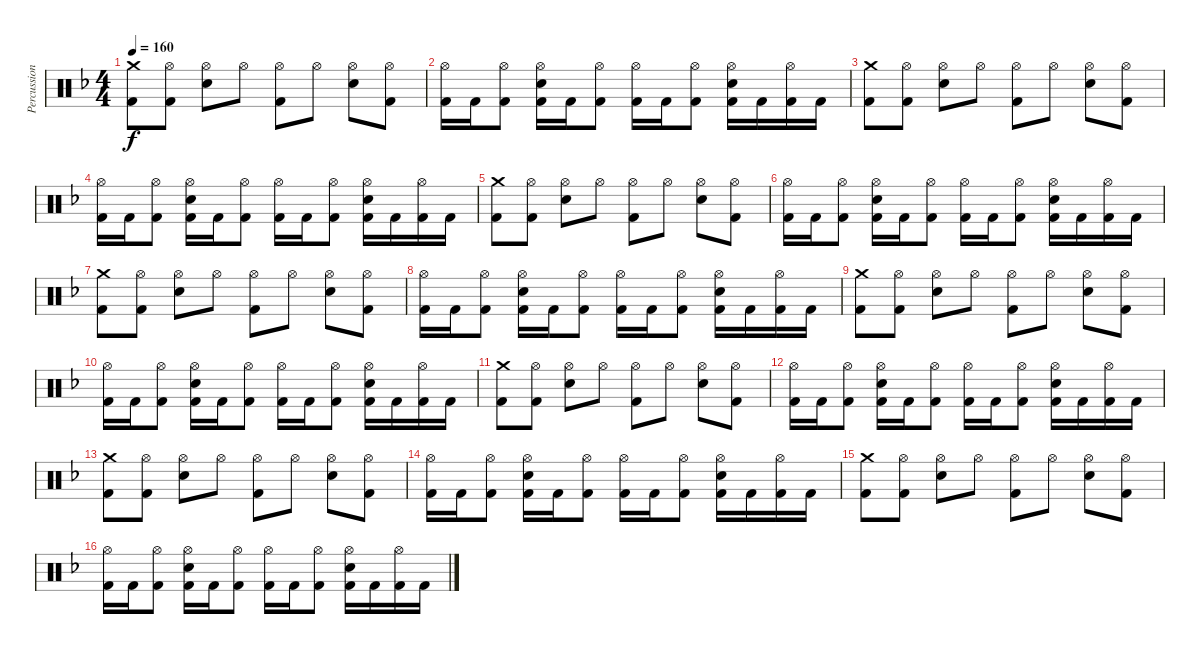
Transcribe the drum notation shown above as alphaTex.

\track ("Percussions" "Percussion") {instrument percussion}
\staff {score}
\articulation defaults
\ts (4 4)
\tempo 160
\clef neutral
\ks f
("Crash medium (hit)" "Kick (hit) 2").8{dy f} ("Hi-Hat (open)" "Kick (hit) 2").8 ("Hi-Hat (open)" "Snare (hit) 2").8 "Hi-Hat (open)".8 ("Hi-Hat (open)" "Kick (hit) 2").8 "Hi-Hat (open)".8 ("Hi-Hat (open)" "Snare (hit) 2").8 ("Hi-Hat (open)" "Kick (hit) 2").8 |
("Hi-Hat (open)" "Kick (hit) 2").16 "Kick (hit) 2".16 ("Hi-Hat (open)" "Kick (hit) 2").8 ("Snare (hit) 2" "Hi-Hat (open)" "Kick (hit) 2").16 "Kick (hit) 2".16 ("Hi-Hat (open)" "Kick (hit) 2").8 ("Hi-Hat (open)" "Kick (hit) 2").16 "Kick (hit) 2".16 ("Hi-Hat (open)" "Kick (hit) 2").8 ("Snare (hit) 2" "Hi-Hat (open)" "Kick (hit) 2").16 "Kick (hit) 2".16 ("Hi-Hat (open)" "Kick (hit) 2").16 "Kick (hit) 2".16 |
("Crash medium (hit)" "Kick (hit) 2").8 ("Hi-Hat (open)" "Kick (hit) 2").8 ("Hi-Hat (open)" "Snare (hit) 2").8 "Hi-Hat (open)".8 ("Hi-Hat (open)" "Kick (hit) 2").8 "Hi-Hat (open)".8 ("Hi-Hat (open)" "Snare (hit) 2").8 ("Hi-Hat (open)" "Kick (hit) 2").8 |
("Hi-Hat (open)" "Kick (hit) 2").16 "Kick (hit) 2".16 ("Hi-Hat (open)" "Kick (hit) 2").8 ("Snare (hit) 2" "Hi-Hat (open)" "Kick (hit) 2").16 "Kick (hit) 2".16 ("Hi-Hat (open)" "Kick (hit) 2").8 ("Hi-Hat (open)" "Kick (hit) 2").16 "Kick (hit) 2".16 ("Hi-Hat (open)" "Kick (hit) 2").8 ("Snare (hit) 2" "Hi-Hat (open)" "Kick (hit) 2").16 "Kick (hit) 2".16 ("Hi-Hat (open)" "Kick (hit) 2").16 "Kick (hit) 2".16 |
("Crash medium (hit)" "Kick (hit) 2").8 ("Hi-Hat (open)" "Kick (hit) 2").8 ("Hi-Hat (open)" "Snare (hit) 2").8 "Hi-Hat (open)".8 ("Hi-Hat (open)" "Kick (hit) 2").8 "Hi-Hat (open)".8 ("Hi-Hat (open)" "Snare (hit) 2").8 ("Hi-Hat (open)" "Kick (hit) 2").8 |
("Hi-Hat (open)" "Kick (hit) 2").16 "Kick (hit) 2".16 ("Hi-Hat (open)" "Kick (hit) 2").8 ("Snare (hit) 2" "Hi-Hat (open)" "Kick (hit) 2").16 "Kick (hit) 2".16 ("Hi-Hat (open)" "Kick (hit) 2").8 ("Hi-Hat (open)" "Kick (hit) 2").16 "Kick (hit) 2".16 ("Hi-Hat (open)" "Kick (hit) 2").8 ("Snare (hit) 2" "Hi-Hat (open)" "Kick (hit) 2").16 "Kick (hit) 2".16 ("Hi-Hat (open)" "Kick (hit) 2").16 "Kick (hit) 2".16 |
("Crash medium (hit)" "Kick (hit) 2").8 ("Hi-Hat (open)" "Kick (hit) 2").8 ("Hi-Hat (open)" "Snare (hit) 2").8 "Hi-Hat (open)".8 ("Hi-Hat (open)" "Kick (hit) 2").8 "Hi-Hat (open)".8 ("Hi-Hat (open)" "Snare (hit) 2").8 ("Hi-Hat (open)" "Kick (hit) 2").8 |
("Hi-Hat (open)" "Kick (hit) 2").16 "Kick (hit) 2".16 ("Hi-Hat (open)" "Kick (hit) 2").8 ("Snare (hit) 2" "Hi-Hat (open)" "Kick (hit) 2").16 "Kick (hit) 2".16 ("Hi-Hat (open)" "Kick (hit) 2").8 ("Hi-Hat (open)" "Kick (hit) 2").16 "Kick (hit) 2".16 ("Hi-Hat (open)" "Kick (hit) 2").8 ("Snare (hit) 2" "Hi-Hat (open)" "Kick (hit) 2").16 "Kick (hit) 2".16 ("Hi-Hat (open)" "Kick (hit) 2").16 "Kick (hit) 2".16 |
("Crash medium (hit)" "Kick (hit) 2").8 ("Hi-Hat (open)" "Kick (hit) 2").8 ("Hi-Hat (open)" "Snare (hit) 2").8 "Hi-Hat (open)".8 ("Hi-Hat (open)" "Kick (hit) 2").8 "Hi-Hat (open)".8 ("Hi-Hat (open)" "Snare (hit) 2").8 ("Hi-Hat (open)" "Kick (hit) 2").8 |
("Hi-Hat (open)" "Kick (hit) 2").16 "Kick (hit) 2".16 ("Hi-Hat (open)" "Kick (hit) 2").8 ("Snare (hit) 2" "Hi-Hat (open)" "Kick (hit) 2").16 "Kick (hit) 2".16 ("Hi-Hat (open)" "Kick (hit) 2").8 ("Hi-Hat (open)" "Kick (hit) 2").16 "Kick (hit) 2".16 ("Hi-Hat (open)" "Kick (hit) 2").8 ("Snare (hit) 2" "Hi-Hat (open)" "Kick (hit) 2").16 "Kick (hit) 2".16 ("Hi-Hat (open)" "Kick (hit) 2").16 "Kick (hit) 2".16 |
("Crash medium (hit)" "Kick (hit) 2").8 ("Hi-Hat (open)" "Kick (hit) 2").8 ("Hi-Hat (open)" "Snare (hit) 2").8 "Hi-Hat (open)".8 ("Hi-Hat (open)" "Kick (hit) 2").8 "Hi-Hat (open)".8 ("Hi-Hat (open)" "Snare (hit) 2").8 ("Hi-Hat (open)" "Kick (hit) 2").8 |
("Hi-Hat (open)" "Kick (hit) 2").16 "Kick (hit) 2".16 ("Hi-Hat (open)" "Kick (hit) 2").8 ("Snare (hit) 2" "Hi-Hat (open)" "Kick (hit) 2").16 "Kick (hit) 2".16 ("Hi-Hat (open)" "Kick (hit) 2").8 ("Hi-Hat (open)" "Kick (hit) 2").16 "Kick (hit) 2".16 ("Hi-Hat (open)" "Kick (hit) 2").8 ("Snare (hit) 2" "Hi-Hat (open)" "Kick (hit) 2").16 "Kick (hit) 2".16 ("Hi-Hat (open)" "Kick (hit) 2").16 "Kick (hit) 2".16 |
("Crash medium (hit)" "Kick (hit) 2").8 ("Hi-Hat (open)" "Kick (hit) 2").8 ("Hi-Hat (open)" "Snare (hit) 2").8 "Hi-Hat (open)".8 ("Hi-Hat (open)" "Kick (hit) 2").8 "Hi-Hat (open)".8 ("Hi-Hat (open)" "Snare (hit) 2").8 ("Hi-Hat (open)" "Kick (hit) 2").8 |
("Hi-Hat (open)" "Kick (hit) 2").16 "Kick (hit) 2".16 ("Hi-Hat (open)" "Kick (hit) 2").8 ("Snare (hit) 2" "Hi-Hat (open)" "Kick (hit) 2").16 "Kick (hit) 2".16 ("Hi-Hat (open)" "Kick (hit) 2").8 ("Hi-Hat (open)" "Kick (hit) 2").16 "Kick (hit) 2".16 ("Hi-Hat (open)" "Kick (hit) 2").8 ("Snare (hit) 2" "Hi-Hat (open)" "Kick (hit) 2").16 "Kick (hit) 2".16 ("Hi-Hat (open)" "Kick (hit) 2").16 "Kick (hit) 2".16 |
("Crash medium (hit)" "Kick (hit) 2").8 ("Hi-Hat (open)" "Kick (hit) 2").8 ("Hi-Hat (open)" "Snare (hit) 2").8 "Hi-Hat (open)".8 ("Hi-Hat (open)" "Kick (hit) 2").8 "Hi-Hat (open)".8 ("Hi-Hat (open)" "Snare (hit) 2").8 ("Hi-Hat (open)" "Kick (hit) 2").8 |
("Hi-Hat (open)" "Kick (hit) 2").16 "Kick (hit) 2".16 ("Hi-Hat (open)" "Kick (hit) 2").8 ("Snare (hit) 2" "Hi-Hat (open)" "Kick (hit) 2").16 "Kick (hit) 2".16 ("Hi-Hat (open)" "Kick (hit) 2").8 ("Hi-Hat (open)" "Kick (hit) 2").16 "Kick (hit) 2".16 ("Hi-Hat (open)" "Kick (hit) 2").8 ("Snare (hit) 2" "Hi-Hat (open)" "Kick (hit) 2").16 "Kick (hit) 2".16 ("Hi-Hat (open)" "Kick (hit) 2").16 "Kick (hit) 2".16
